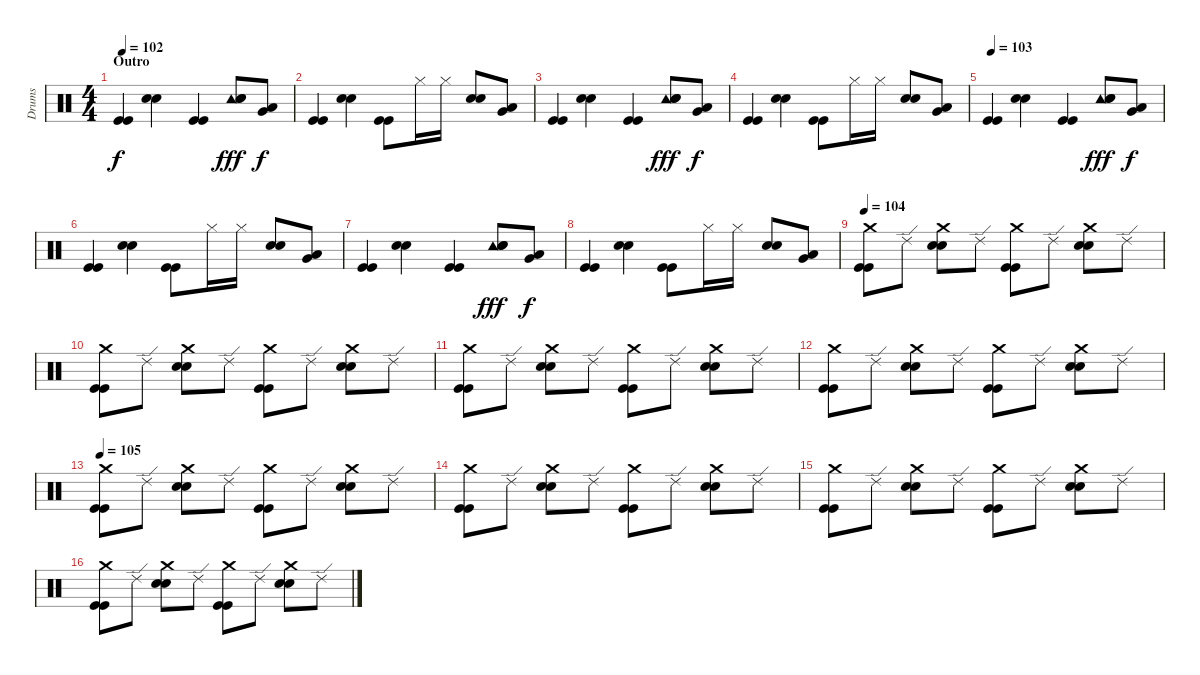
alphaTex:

\track ("Drums" "Drums") {instrument percussion}
\staff {score}
\articulation defaults
\ts (4 4)
\section ("" "Outro")
\tempo 102
\clef neutral
\ks c
("Kick (hit)" "Kick (hit)").4{dy f} ("Snare (hit) 2" "Snare (hit) 2").4 ("Kick (hit)" "Kick (hit)").4 ("Tambourine (hit)" "Snare (hit) 2" "Snare (hit) 2").8{dy fff} ("Low Tom (hit)" "Very Low Tom (hit)").8{dy f} |
("Kick (hit)" "Kick (hit)").4 ("Snare (hit) 2" "Snare (hit) 2").4 ("Kick (hit)" "Kick (hit)").8 "Hi-Hat (closed)".16 "Hi-Hat (closed)".16 ("Snare (hit) 2" "Snare (hit) 2").8 ("Low Tom (hit)" "Very Low Tom (hit)").8 |
("Kick (hit)" "Kick (hit)").4 ("Snare (hit) 2" "Snare (hit) 2").4 ("Kick (hit)" "Kick (hit)").4 ("Tambourine (hit)" "Snare (hit) 2" "Snare (hit) 2").8{dy fff} ("Low Tom (hit)" "Very Low Tom (hit)").8{dy f} |
("Kick (hit)" "Kick (hit)").4 ("Snare (hit) 2" "Snare (hit) 2").4 ("Kick (hit)" "Kick (hit)").8 "Hi-Hat (closed)".16 "Hi-Hat (closed)".16 ("Snare (hit) 2" "Snare (hit) 2").8 ("Low Tom (hit)" "Very Low Tom (hit)").8 |
\tempo 103
("Kick (hit)" "Kick (hit)").4 ("Snare (hit) 2" "Snare (hit) 2").4 ("Kick (hit)" "Kick (hit)").4 ("Tambourine (hit)" "Snare (hit) 2" "Snare (hit) 2").8{dy fff} ("Low Tom (hit)" "Very Low Tom (hit)").8{dy f} |
("Kick (hit)" "Kick (hit)").4 ("Snare (hit) 2" "Snare (hit) 2").4 ("Kick (hit)" "Kick (hit)").8 "Hi-Hat (closed)".16 "Hi-Hat (closed)".16 ("Snare (hit) 2" "Snare (hit) 2").8 ("Low Tom (hit)" "Very Low Tom (hit)").8 |
("Kick (hit)" "Kick (hit)").4 ("Snare (hit) 2" "Snare (hit) 2").4 ("Kick (hit)" "Kick (hit)").4 ("Tambourine (hit)" "Snare (hit) 2" "Snare (hit) 2").8{dy fff} ("Low Tom (hit)" "Very Low Tom (hit)").8{dy f} |
("Kick (hit)" "Kick (hit)").4 ("Snare (hit) 2" "Snare (hit) 2").4 ("Kick (hit)" "Kick (hit)").8 "Hi-Hat (closed)".16 "Hi-Hat (closed)".16 ("Snare (hit) 2" "Snare (hit) 2").8 ("Low Tom (hit)" "Very Low Tom (hit)").8 |
\tempo 104
("Crash medium (hit)" "Kick (hit)" "Kick (hit)").8 "Ride (edge) 2".8 ("Crash medium (hit)" "Snare (hit) 2" "Snare (hit) 2").8 "Ride (edge) 2".8 ("Crash medium (hit)" "Kick (hit)" "Kick (hit)").8 "Ride (edge) 2".8 ("Crash medium (hit)" "Snare (hit) 2" "Snare (hit) 2").8 "Ride (edge) 2".8 |
("Crash medium (hit)" "Kick (hit)" "Kick (hit)").8 "Ride (edge) 2".8 ("Crash medium (hit)" "Snare (hit) 2" "Snare (hit) 2").8 "Ride (edge) 2".8 ("Crash medium (hit)" "Kick (hit)" "Kick (hit)").8 "Ride (edge) 2".8 ("Crash medium (hit)" "Snare (hit) 2" "Snare (hit) 2").8 "Ride (edge) 2".8 |
("Crash medium (hit)" "Kick (hit)" "Kick (hit)").8 "Ride (edge) 2".8 ("Crash medium (hit)" "Snare (hit) 2" "Snare (hit) 2").8 "Ride (edge) 2".8 ("Crash medium (hit)" "Kick (hit)" "Kick (hit)").8 "Ride (edge) 2".8 ("Crash medium (hit)" "Snare (hit) 2" "Snare (hit) 2").8 "Ride (edge) 2".8 |
("Crash medium (hit)" "Kick (hit)" "Kick (hit)").8 "Ride (edge) 2".8 ("Crash medium (hit)" "Snare (hit) 2" "Snare (hit) 2").8 "Ride (edge) 2".8 ("Crash medium (hit)" "Kick (hit)" "Kick (hit)").8 "Ride (edge) 2".8 ("Crash medium (hit)" "Snare (hit) 2" "Snare (hit) 2").8 "Ride (edge) 2".8 |
\tempo 105
("Crash medium (hit)" "Kick (hit)" "Kick (hit)").8 "Ride (edge) 2".8 ("Crash medium (hit)" "Snare (hit) 2" "Snare (hit) 2").8 "Ride (edge) 2".8 ("Crash medium (hit)" "Kick (hit)" "Kick (hit)").8 "Ride (edge) 2".8 ("Crash medium (hit)" "Snare (hit) 2" "Snare (hit) 2").8 "Ride (edge) 2".8 |
("Crash medium (hit)" "Kick (hit)" "Kick (hit)").8 "Ride (edge) 2".8 ("Crash medium (hit)" "Snare (hit) 2" "Snare (hit) 2").8 "Ride (edge) 2".8 ("Crash medium (hit)" "Kick (hit)" "Kick (hit)").8 "Ride (edge) 2".8 ("Crash medium (hit)" "Snare (hit) 2" "Snare (hit) 2").8 "Ride (edge) 2".8 |
("Crash medium (hit)" "Kick (hit)" "Kick (hit)").8 "Ride (edge) 2".8 ("Crash medium (hit)" "Snare (hit) 2" "Snare (hit) 2").8 "Ride (edge) 2".8 ("Crash medium (hit)" "Kick (hit)" "Kick (hit)").8 "Ride (edge) 2".8 ("Crash medium (hit)" "Snare (hit) 2" "Snare (hit) 2").8 "Ride (edge) 2".8 |
("Crash medium (hit)" "Kick (hit)" "Kick (hit)").8 "Ride (edge) 2".8 ("Crash medium (hit)" "Snare (hit) 2" "Snare (hit) 2").8 "Ride (edge) 2".8 ("Crash medium (hit)" "Kick (hit)" "Kick (hit)").8 "Ride (edge) 2".8 ("Crash medium (hit)" "Snare (hit) 2" "Snare (hit) 2").8 "Ride (edge) 2".8
